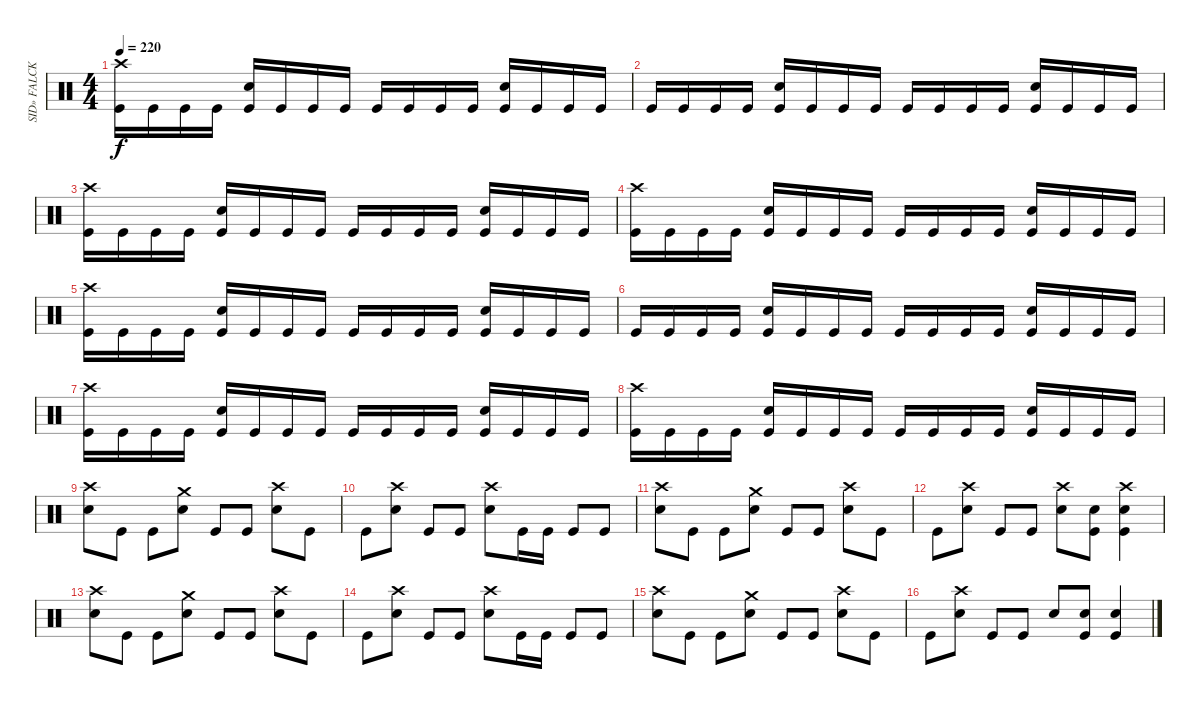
\track ("SID» FALCK- Drums " "SID» FALCK") {instrument percussion}
\staff {score}
\articulation defaults
\ts (4 4)
\tempo 220
\clef neutral
\ks c
("Crash high (hit)" "Kick (hit)").16{dy f} "Kick (hit)".16 "Kick (hit)".16 "Kick (hit)".16 ("Electric Snare (hit)" "Kick (hit)").16 "Kick (hit)".16 "Kick (hit)".16 "Kick (hit)".16 "Kick (hit)".16 "Kick (hit)".16 "Kick (hit)".16 "Kick (hit)".16 ("Electric Snare (hit)" "Kick (hit)").16 "Kick (hit)".16 "Kick (hit)".16 "Kick (hit)".16 |
"Kick (hit)".16 "Kick (hit)".16 "Kick (hit)".16 "Kick (hit)".16 ("Electric Snare (hit)" "Kick (hit)").16 "Kick (hit)".16 "Kick (hit)".16 "Kick (hit)".16 "Kick (hit)".16 "Kick (hit)".16 "Kick (hit)".16 "Kick (hit)".16 ("Electric Snare (hit)" "Kick (hit)").16 "Kick (hit)".16 "Kick (hit)".16 "Kick (hit)".16 |
("Crash high (hit)" "Kick (hit)").16 "Kick (hit)".16 "Kick (hit)".16 "Kick (hit)".16 ("Electric Snare (hit)" "Kick (hit)").16 "Kick (hit)".16 "Kick (hit)".16 "Kick (hit)".16 "Kick (hit)".16 "Kick (hit)".16 "Kick (hit)".16 "Kick (hit)".16 ("Electric Snare (hit)" "Kick (hit)").16 "Kick (hit)".16 "Kick (hit)".16 "Kick (hit)".16 |
("Crash high (hit)" "Kick (hit)").16 "Kick (hit)".16 "Kick (hit)".16 "Kick (hit)".16 ("Electric Snare (hit)" "Kick (hit)").16 "Kick (hit)".16 "Kick (hit)".16 "Kick (hit)".16 "Kick (hit)".16 "Kick (hit)".16 "Kick (hit)".16 "Kick (hit)".16 ("Electric Snare (hit)" "Kick (hit)").16 "Kick (hit)".16 "Kick (hit)".16 "Kick (hit)".16 |
("Crash high (hit)" "Kick (hit)").16 "Kick (hit)".16 "Kick (hit)".16 "Kick (hit)".16 ("Electric Snare (hit)" "Kick (hit)").16 "Kick (hit)".16 "Kick (hit)".16 "Kick (hit)".16 "Kick (hit)".16 "Kick (hit)".16 "Kick (hit)".16 "Kick (hit)".16 ("Electric Snare (hit)" "Kick (hit)").16 "Kick (hit)".16 "Kick (hit)".16 "Kick (hit)".16 |
"Kick (hit)".16 "Kick (hit)".16 "Kick (hit)".16 "Kick (hit)".16 ("Electric Snare (hit)" "Kick (hit)").16 "Kick (hit)".16 "Kick (hit)".16 "Kick (hit)".16 "Kick (hit)".16 "Kick (hit)".16 "Kick (hit)".16 "Kick (hit)".16 ("Electric Snare (hit)" "Kick (hit)").16 "Kick (hit)".16 "Kick (hit)".16 "Kick (hit)".16 |
("Crash high (hit)" "Kick (hit)").16 "Kick (hit)".16 "Kick (hit)".16 "Kick (hit)".16 ("Electric Snare (hit)" "Kick (hit)").16 "Kick (hit)".16 "Kick (hit)".16 "Kick (hit)".16 "Kick (hit)".16 "Kick (hit)".16 "Kick (hit)".16 "Kick (hit)".16 ("Electric Snare (hit)" "Kick (hit)").16 "Kick (hit)".16 "Kick (hit)".16 "Kick (hit)".16 |
("Crash high (hit)" "Kick (hit)").16 "Kick (hit)".16 "Kick (hit)".16 "Kick (hit)".16 ("Electric Snare (hit)" "Kick (hit)").16 "Kick (hit)".16 "Kick (hit)".16 "Kick (hit)".16 "Kick (hit)".16 "Kick (hit)".16 "Kick (hit)".16 "Kick (hit)".16 ("Electric Snare (hit)" "Kick (hit)").16 "Kick (hit)".16 "Kick (hit)".16 "Kick (hit)".16 |
("Crash high (hit)" "Electric Snare (hit)").8 "Kick (hit)".8 "Kick (hit)".8 ("Crash medium (hit)" "Electric Snare (hit)").8 "Kick (hit)".8 "Kick (hit)".8 ("Crash high (hit)" "Electric Snare (hit)").8 "Kick (hit)".8 |
"Kick (hit)".8 ("Crash high (hit)" "Electric Snare (hit)").8 "Kick (hit)".8 "Kick (hit)".8 ("Crash high (hit)" "Electric Snare (hit)").8 "Kick (hit)".16 "Kick (hit)".16 "Kick (hit)".8 "Kick (hit)".8 |
("Crash high (hit)" "Electric Snare (hit)").8 "Kick (hit)".8 "Kick (hit)".8 ("Crash medium (hit)" "Electric Snare (hit)").8 "Kick (hit)".8 "Kick (hit)".8 ("Crash high (hit)" "Electric Snare (hit)").8 "Kick (hit)".8 |
"Kick (hit)".8 ("Crash high (hit)" "Electric Snare (hit)").8 "Kick (hit)".8 "Kick (hit)".8 ("Crash high (hit)" "Electric Snare (hit)").8 ("Electric Snare (hit)" "Kick (hit)").8 ("Crash high (hit)" "Electric Snare (hit)" "Kick (hit)").4 |
("Crash high (hit)" "Electric Snare (hit)").8 "Kick (hit)".8 "Kick (hit)".8 ("Crash medium (hit)" "Electric Snare (hit)").8 "Kick (hit)".8 "Kick (hit)".8 ("Crash high (hit)" "Electric Snare (hit)").8 "Kick (hit)".8 |
"Kick (hit)".8 ("Crash high (hit)" "Electric Snare (hit)").8 "Kick (hit)".8 "Kick (hit)".8 ("Crash high (hit)" "Electric Snare (hit)").8 "Kick (hit)".16 "Kick (hit)".16 "Kick (hit)".8 "Kick (hit)".8 |
("Crash high (hit)" "Electric Snare (hit)").8 "Kick (hit)".8 "Kick (hit)".8 ("Crash medium (hit)" "Electric Snare (hit)").8 "Kick (hit)".8 "Kick (hit)".8 ("Crash high (hit)" "Electric Snare (hit)").8 "Kick (hit)".8 |
"Kick (hit)".8 ("Crash high (hit)" "Electric Snare (hit)").8 "Kick (hit)".8 "Kick (hit)".8 "Electric Snare (hit)".8 ("Electric Snare (hit)" "Kick (hit)").8 ("Electric Snare (hit)" "Kick (hit)").4
